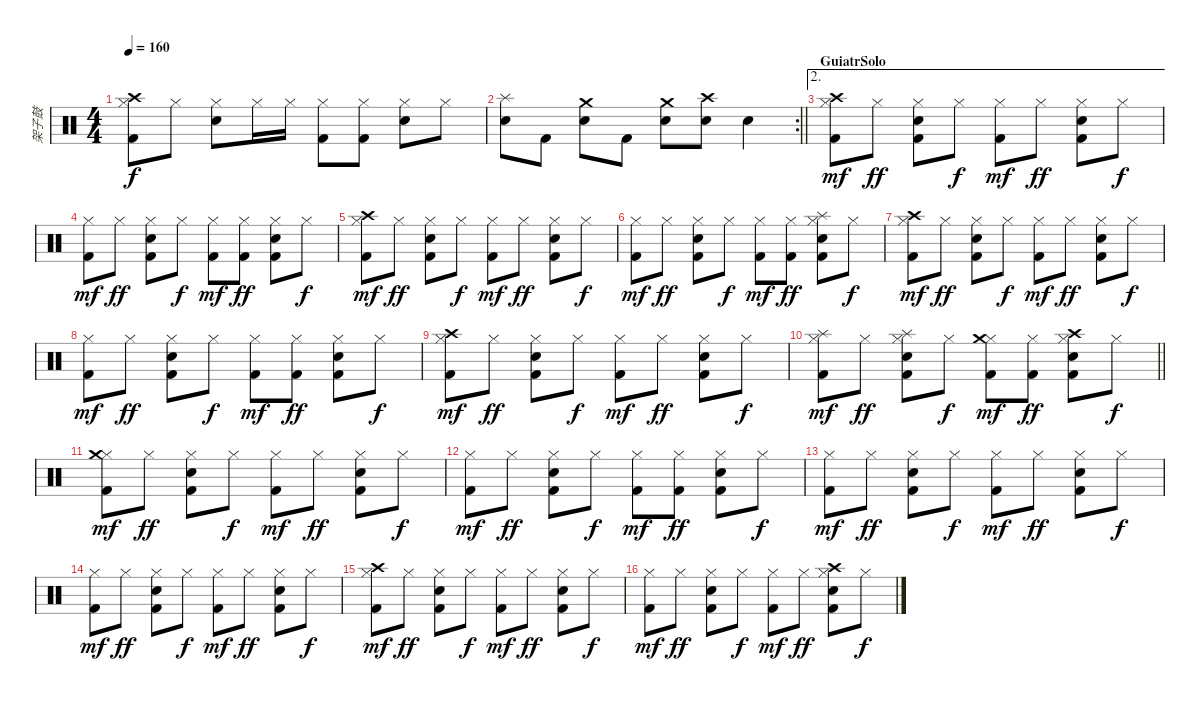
\track ("架子鼓" "架子鼓") {instrument percussion}
\staff {score}
\articulation defaults
\ts (4 4)
\tempo 160
\clef neutral
\ks c
("Hi-Hat (closed)" "Crash high (hit)" "Kick (hit) 2").8{dy f} "Hi-Hat (closed)".8 ("Hi-Hat (closed)" "Electric Snare (hit)").8 "Hi-Hat (closed)".16 "Hi-Hat (closed)".16 ("Hi-Hat (closed)" "Kick (hit) 2").8 ("Hi-Hat (closed)" "Kick (hit) 2").8 ("Hi-Hat (closed)" "Electric Snare (hit)").8 "Hi-Hat (closed)".8 |
\rc 2
\barLineRight lightlight
("Splash (hit)" "Electric Snare (hit)").8 "Kick (hit) 2".8 ("Crash medium (hit)" "Electric Snare (hit)").8 "Kick (hit) 2".8 ("Crash medium (hit)" "Electric Snare (hit)").8 ("Crash high (hit)" "Electric Snare (hit)").8 "Electric Snare (hit)".4 |
\ae 2
\section ("" "GuiatrSolo")
("Hi-Hat (closed)" "Crash high (hit)" "Kick (hit) 2").8{dy mf} "Hi-Hat (closed)".8{dy ff} ("Hi-Hat (closed)" "Electric Snare (hit)" "Kick (hit) 2").8 "Hi-Hat (closed)".8{dy f} ("Hi-Hat (closed)" "Kick (hit) 2").8{dy mf} "Hi-Hat (closed)".8{dy ff} ("Hi-Hat (closed)" "Electric Snare (hit)" "Kick (hit) 2").8 "Hi-Hat (closed)".8{dy f} |
("Hi-Hat (closed)" "Kick (hit) 2").8{dy mf} "Hi-Hat (closed)".8{dy ff} ("Hi-Hat (closed)" "Electric Snare (hit)" "Kick (hit) 2").8 "Hi-Hat (closed)".8{dy f} ("Hi-Hat (closed)" "Kick (hit) 2").8{dy mf} ("Hi-Hat (closed)" "Kick (hit) 2").8{dy ff} ("Hi-Hat (closed)" "Electric Snare (hit)" "Kick (hit) 2").8 "Hi-Hat (closed)".8{dy f} |
("Hi-Hat (closed)" "Crash high (hit)" "Kick (hit) 2").8{dy mf} "Hi-Hat (closed)".8{dy ff} ("Hi-Hat (closed)" "Electric Snare (hit)" "Kick (hit) 2").8 "Hi-Hat (closed)".8{dy f} ("Hi-Hat (closed)" "Kick (hit) 2").8{dy mf} "Hi-Hat (closed)".8{dy ff} ("Hi-Hat (closed)" "Electric Snare (hit)" "Kick (hit) 2").8 "Hi-Hat (closed)".8{dy f} |
("Hi-Hat (closed)" "Kick (hit) 2").8{dy mf} "Hi-Hat (closed)".8{dy ff} ("Hi-Hat (closed)" "Electric Snare (hit)" "Kick (hit) 2").8 "Hi-Hat (closed)".8{dy f} ("Hi-Hat (closed)" "Kick (hit) 2").8{dy mf} ("Hi-Hat (closed)" "Kick (hit) 2").8{dy ff} ("Hi-Hat (closed)" "Electric Snare (hit)" "Splash (hit)" "Kick (hit) 2").8 "Hi-Hat (closed)".8{dy f} |
("Hi-Hat (closed)" "Crash high (hit)" "Kick (hit) 2").8{dy mf} "Hi-Hat (closed)".8{dy ff} ("Hi-Hat (closed)" "Electric Snare (hit)" "Kick (hit) 2").8 "Hi-Hat (closed)".8{dy f} ("Hi-Hat (closed)" "Kick (hit) 2").8{dy mf} "Hi-Hat (closed)".8{dy ff} ("Hi-Hat (closed)" "Electric Snare (hit)" "Kick (hit) 2").8 "Hi-Hat (closed)".8{dy f} |
("Hi-Hat (closed)" "Kick (hit) 2").8{dy mf} "Hi-Hat (closed)".8{dy ff} ("Hi-Hat (closed)" "Electric Snare (hit)" "Kick (hit) 2").8 "Hi-Hat (closed)".8{dy f} ("Hi-Hat (closed)" "Kick (hit) 2").8{dy mf} ("Hi-Hat (closed)" "Kick (hit) 2").8{dy ff} ("Hi-Hat (closed)" "Electric Snare (hit)" "Kick (hit) 2").8 "Hi-Hat (closed)".8{dy f} |
("Hi-Hat (closed)" "Crash high (hit)" "Kick (hit) 2").8{dy mf} "Hi-Hat (closed)".8{dy ff} ("Hi-Hat (closed)" "Electric Snare (hit)" "Kick (hit) 2").8 "Hi-Hat (closed)".8{dy f} ("Hi-Hat (closed)" "Kick (hit) 2").8{dy mf} "Hi-Hat (closed)".8{dy ff} ("Hi-Hat (closed)" "Electric Snare (hit)" "Kick (hit) 2").8 "Hi-Hat (closed)".8{dy f} |
\barLineRight lightlight
("Hi-Hat (closed)" "Splash (hit)" "Kick (hit) 2").8{dy mf} "Hi-Hat (closed)".8{dy ff} ("Hi-Hat (closed)" "Electric Snare (hit)" "Splash (hit)" "Kick (hit) 2").8 "Hi-Hat (closed)".8{dy f} ("Hi-Hat (closed)" "Crash medium (hit)" "Kick (hit) 2").8{dy mf} ("Hi-Hat (closed)" "Kick (hit) 2").8{dy ff} ("Hi-Hat (closed)" "Electric Snare (hit)" "Crash high (hit)" "Kick (hit) 2").8 "Hi-Hat (closed)".8{dy f} |
("Hi-Hat (closed)" "Crash medium (hit)" "Kick (hit) 2").8{dy mf} "Hi-Hat (closed)".8{dy ff} ("Hi-Hat (closed)" "Electric Snare (hit)" "Kick (hit) 2").8 "Hi-Hat (closed)".8{dy f} ("Hi-Hat (closed)" "Kick (hit) 2").8{dy mf} "Hi-Hat (closed)".8{dy ff} ("Hi-Hat (closed)" "Electric Snare (hit)" "Kick (hit) 2").8 "Hi-Hat (closed)".8{dy f} |
("Hi-Hat (closed)" "Kick (hit) 2").8{dy mf} "Hi-Hat (closed)".8{dy ff} ("Hi-Hat (closed)" "Electric Snare (hit)" "Kick (hit) 2").8 "Hi-Hat (closed)".8{dy f} ("Hi-Hat (closed)" "Kick (hit) 2").8{dy mf} ("Hi-Hat (closed)" "Kick (hit) 2").8{dy ff} ("Hi-Hat (closed)" "Electric Snare (hit)" "Kick (hit) 2").8 "Hi-Hat (closed)".8{dy f} |
("Hi-Hat (closed)" "Kick (hit) 2").8{dy mf} "Hi-Hat (closed)".8{dy ff} ("Hi-Hat (closed)" "Electric Snare (hit)" "Kick (hit) 2").8 "Hi-Hat (closed)".8{dy f} ("Hi-Hat (closed)" "Kick (hit) 2").8{dy mf} "Hi-Hat (closed)".8{dy ff} ("Hi-Hat (closed)" "Electric Snare (hit)" "Kick (hit) 2").8 "Hi-Hat (closed)".8{dy f} |
("Hi-Hat (closed)" "Kick (hit) 2").8{dy mf} "Hi-Hat (closed)".8{dy ff} ("Hi-Hat (closed)" "Electric Snare (hit)" "Kick (hit) 2").8 "Hi-Hat (closed)".8{dy f} ("Hi-Hat (closed)" "Kick (hit) 2").8{dy mf} "Hi-Hat (closed)".8{dy ff} ("Hi-Hat (closed)" "Electric Snare (hit)" "Kick (hit) 2").8 "Hi-Hat (closed)".8{dy f} |
("Hi-Hat (closed)" "Crash high (hit)" "Kick (hit) 2").8{dy mf} "Hi-Hat (closed)".8{dy ff} ("Hi-Hat (closed)" "Electric Snare (hit)" "Kick (hit) 2").8 "Hi-Hat (closed)".8{dy f} ("Hi-Hat (closed)" "Kick (hit) 2").8{dy mf} "Hi-Hat (closed)".8{dy ff} ("Hi-Hat (closed)" "Electric Snare (hit)" "Kick (hit) 2").8 "Hi-Hat (closed)".8{dy f} |
("Hi-Hat (closed)" "Kick (hit) 2").8{dy mf} "Hi-Hat (closed)".8{dy ff} ("Hi-Hat (closed)" "Electric Snare (hit)" "Kick (hit) 2").8 "Hi-Hat (closed)".8{dy f} ("Hi-Hat (closed)" "Kick (hit) 2").8{dy mf} "Hi-Hat (closed)".8{dy ff} ("Hi-Hat (closed)" "Electric Snare (hit)" "Crash high (hit)" "Kick (hit) 2").8 "Hi-Hat (closed)".8{dy f}
